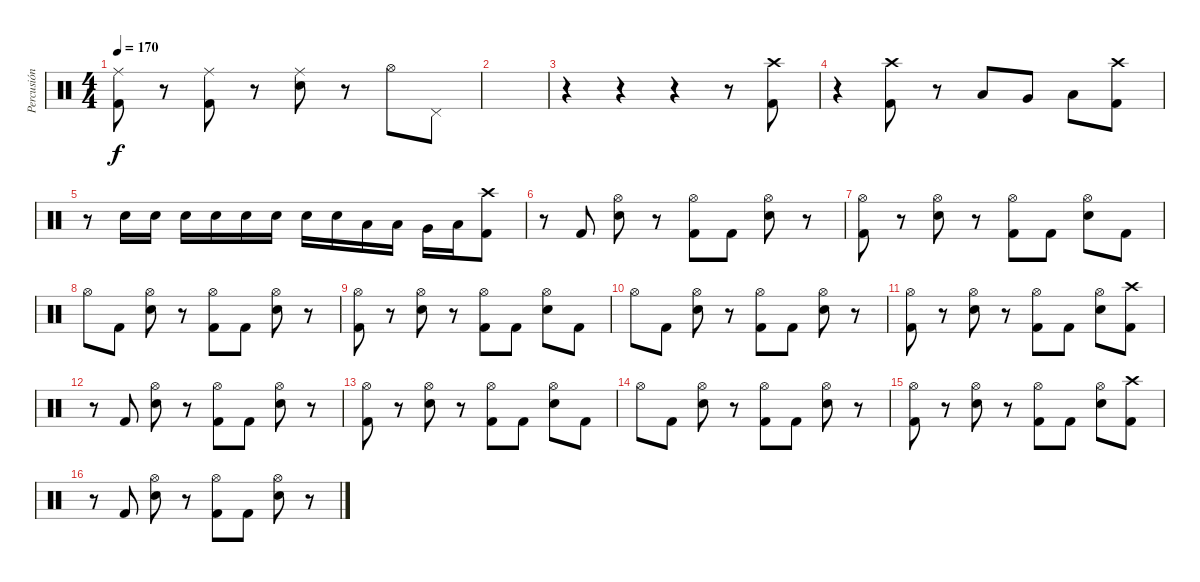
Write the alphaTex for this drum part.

\track ("Percusión" "Percusión") {instrument percussion}
\staff {score}
\articulation defaults
\ts (4 4)
\tempo 170
\clef neutral
\ks c
("Kick (hit) 2" "Ride (middle)").8{dy f} r.8 ("Kick (hit) 2" "Ride (middle)").8 r.8 ("Snare (hit) 2" "Ride (middle)").8 r.8 "Hi-Hat (open)".8 "Pedal Hi-Hat (hit)".8 |
|
r.4 r.4 r.4 r.8 ("Kick (hit) 2" "Crash high (hit)").8 |
r.4 ("Kick (hit) 2" "Crash high (hit)").8 r.8 "Low Tom (hit)".8 "Very Low Tom (hit)".8 "Low Floor Tom (hit)".8 ("Kick (hit) 2" "Crash high (hit)").8 |
r.8 "Snare (hit) 2".16 "Snare (hit) 2".16 "Snare (hit) 2".16 "Snare (hit) 2".16 "Snare (hit) 2".16 "Snare (hit) 2".16 "Snare (hit) 2".16 "Snare (hit) 2".16 "Low Tom (hit)".16 "Low Tom (hit)".16 "Very Low Tom (hit)".16 "Low Floor Tom (hit)".16 ("Kick (hit) 2" "Crash high (hit)").8 |
r.8 "Kick (hit) 2".8 ("Snare (hit) 2" "Hi-Hat (open)").8 r.8 ("Kick (hit) 2" "Hi-Hat (open)").8 "Kick (hit) 2".8 ("Snare (hit) 2" "Hi-Hat (open)").8 r.8 |
("Kick (hit) 2" "Hi-Hat (open)").8 r.8 ("Snare (hit) 2" "Hi-Hat (open)").8 r.8 ("Kick (hit) 2" "Hi-Hat (open)").8 "Kick (hit) 2".8 ("Snare (hit) 2" "Hi-Hat (open)").8 "Kick (hit) 2".8 |
"Hi-Hat (open)".8 "Kick (hit) 2".8 ("Snare (hit) 2" "Hi-Hat (open)").8 r.8 ("Kick (hit) 2" "Hi-Hat (open)").8 "Kick (hit) 2".8 ("Snare (hit) 2" "Hi-Hat (open)").8 r.8 |
("Kick (hit) 2" "Hi-Hat (open)").8 r.8 ("Snare (hit) 2" "Hi-Hat (open)").8 r.8 ("Kick (hit) 2" "Hi-Hat (open)").8 "Kick (hit) 2".8 ("Snare (hit) 2" "Hi-Hat (open)").8 "Kick (hit) 2".8 |
"Hi-Hat (open)".8 "Kick (hit) 2".8 ("Snare (hit) 2" "Hi-Hat (open)").8 r.8 ("Kick (hit) 2" "Hi-Hat (open)").8 "Kick (hit) 2".8 ("Snare (hit) 2" "Hi-Hat (open)").8 r.8 |
("Kick (hit) 2" "Hi-Hat (open)").8 r.8 ("Snare (hit) 2" "Hi-Hat (open)").8 r.8 ("Kick (hit) 2" "Hi-Hat (open)").8 "Kick (hit) 2".8 ("Snare (hit) 2" "Hi-Hat (open)").8 ("Kick (hit) 2" "Crash high (hit)").8 |
r.8 "Kick (hit) 2".8 ("Snare (hit) 2" "Hi-Hat (open)").8 r.8 ("Kick (hit) 2" "Hi-Hat (open)").8 "Kick (hit) 2".8 ("Snare (hit) 2" "Hi-Hat (open)").8 r.8 |
("Kick (hit) 2" "Hi-Hat (open)").8 r.8 ("Snare (hit) 2" "Hi-Hat (open)").8 r.8 ("Kick (hit) 2" "Hi-Hat (open)").8 "Kick (hit) 2".8 ("Snare (hit) 2" "Hi-Hat (open)").8 "Kick (hit) 2".8 |
"Hi-Hat (open)".8 "Kick (hit) 2".8 ("Snare (hit) 2" "Hi-Hat (open)").8 r.8 ("Kick (hit) 2" "Hi-Hat (open)").8 "Kick (hit) 2".8 ("Snare (hit) 2" "Hi-Hat (open)").8 r.8 |
("Kick (hit) 2" "Hi-Hat (open)").8 r.8 ("Snare (hit) 2" "Hi-Hat (open)").8 r.8 ("Kick (hit) 2" "Hi-Hat (open)").8 "Kick (hit) 2".8 ("Snare (hit) 2" "Hi-Hat (open)").8 ("Kick (hit) 2" "Crash high (hit)").8 |
r.8 "Kick (hit) 2".8 ("Snare (hit) 2" "Hi-Hat (open)").8 r.8 ("Kick (hit) 2" "Hi-Hat (open)").8 "Kick (hit) 2".8 ("Snare (hit) 2" "Hi-Hat (open)").8 r.8
